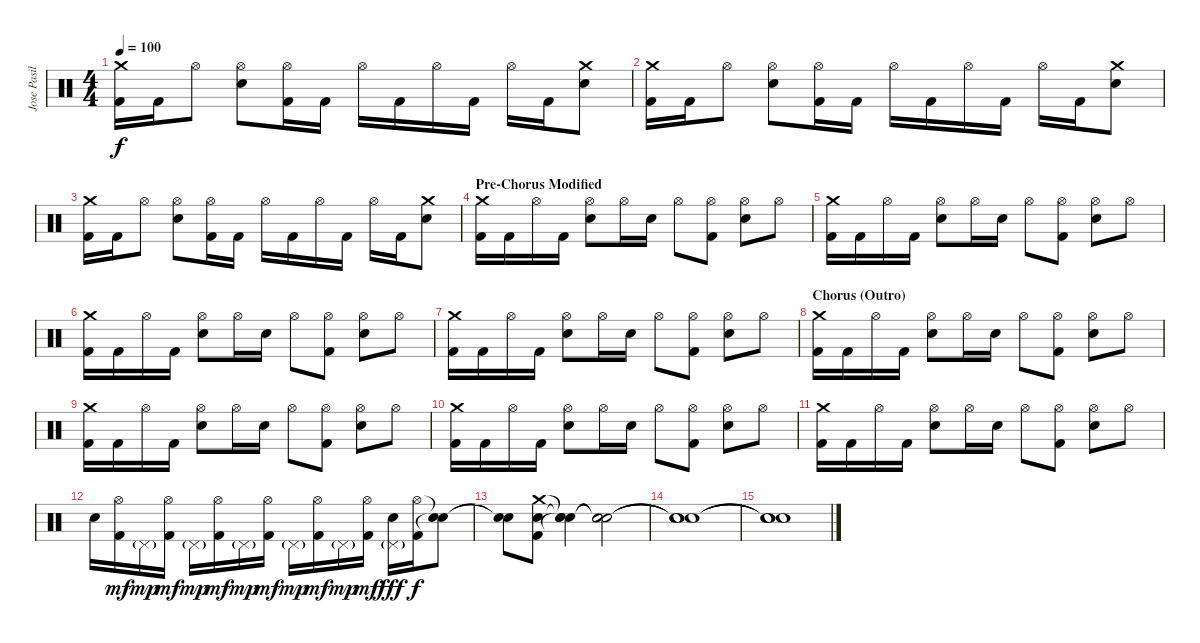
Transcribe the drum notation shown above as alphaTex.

\track ("Jose Pasillas - Drums" "Jose Pasil") {instrument percussion}
\staff {score}
\articulation defaults
\ts (4 4)
\tempo 100
\clef neutral
\ks c
("Crash medium (hit)" "Kick (hit) 2").16{dy f} "Kick (hit) 2".16 "Hi-Hat (open)".8 ("Hi-Hat (open)" "Electric Snare (hit)").8 ("Hi-Hat (open)" "Kick (hit) 2").16 "Kick (hit) 2".16 "Hi-Hat (open)".16 "Kick (hit) 2".16 "Hi-Hat (open)".16 "Kick (hit) 2".16 "Hi-Hat (open)".16 "Kick (hit) 2".16 ("Crash medium (hit)" "Electric Snare (hit)").8 |
("Crash medium (hit)" "Kick (hit) 2").16 "Kick (hit) 2".16 "Hi-Hat (open)".8 ("Hi-Hat (open)" "Electric Snare (hit)").8 ("Hi-Hat (open)" "Kick (hit) 2").16 "Kick (hit) 2".16 "Hi-Hat (open)".16 "Kick (hit) 2".16 "Hi-Hat (open)".16 "Kick (hit) 2".16 "Hi-Hat (open)".16 "Kick (hit) 2".16 ("Crash medium (hit)" "Electric Snare (hit)").8 |
("Crash medium (hit)" "Kick (hit) 2").16 "Kick (hit) 2".16 "Hi-Hat (open)".8 ("Hi-Hat (open)" "Electric Snare (hit)").8 ("Hi-Hat (open)" "Kick (hit) 2").16 "Kick (hit) 2".16 "Hi-Hat (open)".16 "Kick (hit) 2".16 "Hi-Hat (open)".16 "Kick (hit) 2".16 "Hi-Hat (open)".16 "Kick (hit) 2".16 ("Crash medium (hit)" "Electric Snare (hit)").8 |
\section ("" "Pre-Chorus Modified")
("Crash medium (hit)" "Kick (hit) 2").16 "Kick (hit) 2".16 "Hi-Hat (open)".16 "Kick (hit) 2".16 ("Hi-Hat (open)" "Electric Snare (hit)").8 "Hi-Hat (open)".16 "Electric Snare (hit)".16 "Hi-Hat (open)".8 ("Hi-Hat (open)" "Kick (hit) 2").8 ("Hi-Hat (open)" "Electric Snare (hit)").8 "Hi-Hat (open)".8 |
("Crash medium (hit)" "Kick (hit) 2").16 "Kick (hit) 2".16 "Hi-Hat (open)".16 "Kick (hit) 2".16 ("Hi-Hat (open)" "Electric Snare (hit)").8 "Hi-Hat (open)".16 "Electric Snare (hit)".16 "Hi-Hat (open)".8 ("Hi-Hat (open)" "Kick (hit) 2").8 ("Hi-Hat (open)" "Electric Snare (hit)").8 "Hi-Hat (open)".8 |
("Crash medium (hit)" "Kick (hit) 2").16 "Kick (hit) 2".16 "Hi-Hat (open)".16 "Kick (hit) 2".16 ("Hi-Hat (open)" "Electric Snare (hit)").8 "Hi-Hat (open)".16 "Electric Snare (hit)".16 "Hi-Hat (open)".8 ("Hi-Hat (open)" "Kick (hit) 2").8 ("Hi-Hat (open)" "Electric Snare (hit)").8 "Hi-Hat (open)".8 |
("Crash medium (hit)" "Kick (hit) 2").16 "Kick (hit) 2".16 "Hi-Hat (open)".16 "Kick (hit) 2".16 ("Hi-Hat (open)" "Electric Snare (hit)").8 "Hi-Hat (open)".16 "Electric Snare (hit)".16 "Hi-Hat (open)".8 ("Hi-Hat (open)" "Kick (hit) 2").8 ("Hi-Hat (open)" "Electric Snare (hit)").8 "Hi-Hat (open)".8 |
\section ("" "Chorus (Outro)")
("Crash medium (hit)" "Kick (hit) 2").16 "Kick (hit) 2".16 "Hi-Hat (open)".16 "Kick (hit) 2".16 ("Hi-Hat (open)" "Electric Snare (hit)").8 "Hi-Hat (open)".16 "Electric Snare (hit)".16 "Hi-Hat (open)".8 ("Hi-Hat (open)" "Kick (hit) 2").8 ("Hi-Hat (open)" "Electric Snare (hit)").8 "Hi-Hat (open)".8 |
("Crash medium (hit)" "Kick (hit) 2").16 "Kick (hit) 2".16 "Hi-Hat (open)".16 "Kick (hit) 2".16 ("Hi-Hat (open)" "Electric Snare (hit)").8 "Hi-Hat (open)".16 "Electric Snare (hit)".16 "Hi-Hat (open)".8 ("Hi-Hat (open)" "Kick (hit) 2").8 ("Hi-Hat (open)" "Electric Snare (hit)").8 "Hi-Hat (open)".8 |
("Crash medium (hit)" "Kick (hit) 2").16 "Kick (hit) 2".16 "Hi-Hat (open)".16 "Kick (hit) 2".16 ("Hi-Hat (open)" "Electric Snare (hit)").8 "Hi-Hat (open)".16 "Electric Snare (hit)".16 "Hi-Hat (open)".8 ("Hi-Hat (open)" "Kick (hit) 2").8 ("Hi-Hat (open)" "Electric Snare (hit)").8 "Hi-Hat (open)".8 |
("Crash medium (hit)" "Kick (hit) 2").16 "Kick (hit) 2".16 "Hi-Hat (open)".16 "Kick (hit) 2".16 ("Hi-Hat (open)" "Electric Snare (hit)").8 "Hi-Hat (open)".16 "Electric Snare (hit)".16 "Hi-Hat (open)".8 ("Hi-Hat (open)" "Kick (hit) 2").8 ("Hi-Hat (open)" "Electric Snare (hit)").8 "Hi-Hat (open)".8 |
"Electric Snare (hit)".16 ("Hi-Hat (open)" "Kick (hit) 2").16{dy mf} "Pedal Hi-Hat (hit)"{g}.16{dy mp} ("Hi-Hat (open)" "Kick (hit) 2").16{dy mf} "Pedal Hi-Hat (hit)"{g}.16{dy mp} ("Hi-Hat (open)" "Kick (hit) 2").16{dy mf} "Pedal Hi-Hat (hit)"{g}.16{dy mp} ("Hi-Hat (open)" "Kick (hit) 2").16{dy mf} "Pedal Hi-Hat (hit)"{g}.16{dy mp} ("Hi-Hat (open)" "Kick (hit) 2").16{dy mf} "Pedal Hi-Hat (hit)"{g}.16{dy mp} ("Hi-Hat (open)" "Kick (hit) 2").16{dy mf} ("Pedal Hi-Hat (hit)"{g} "Electric Snare (hit)").16{dy fff} ("Hi-Hat (open)" "Kick (hit) 2").16{dy f} ("Snare (hit)"{t} "Snare (hit)"{t}).8 |
("Snare (hit)"{t} "Snare (hit)"{t}).8 ("Crash medium (hit)" "Electric Snare (hit)" "Kick (hit) 2").8 ("Snare (hit)"{t} "Snare (hit)"{t} "Snare (hit)"{t}).4 ("Snare (hit)"{t} "Snare (hit)"{t} "Snare (hit)"{t}).2 |
("Snare (hit)"{t} "Snare (hit)"{t} "Snare (hit)"{t}).1 |
("Snare (hit)"{t} "Snare (hit)"{t} "Snare (hit)"{t}).1
